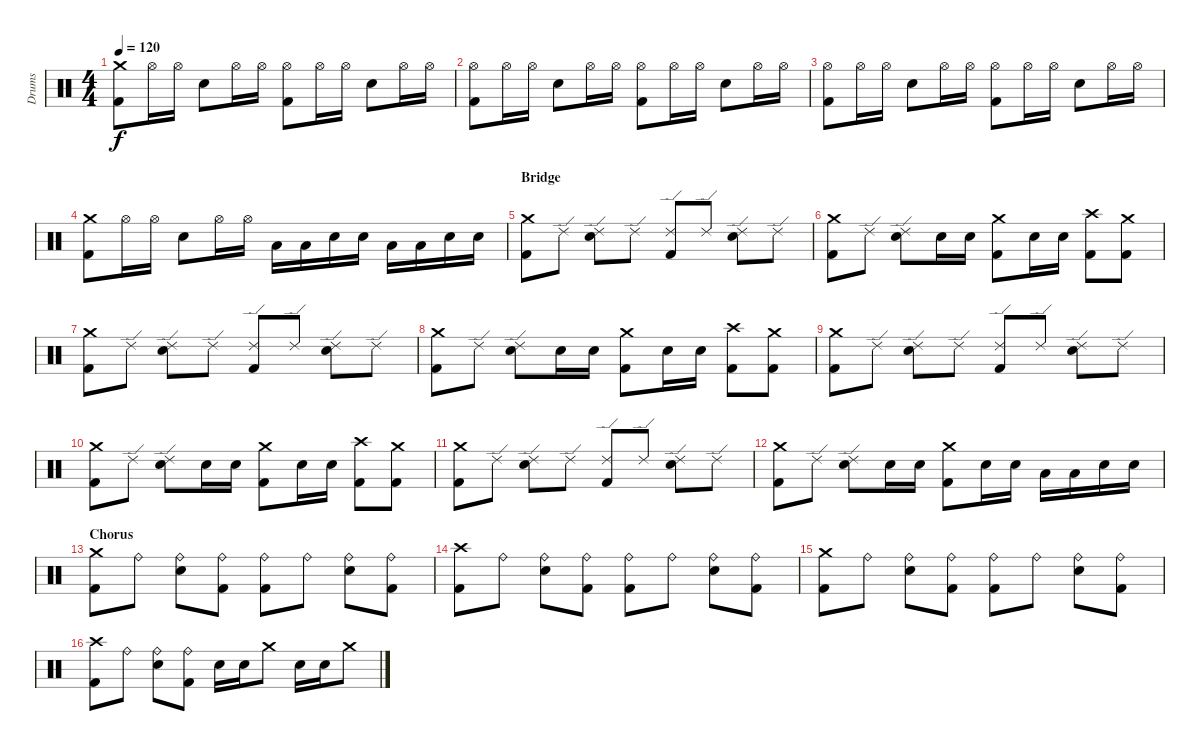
\track ("Drums" "Drums") {instrument percussion}
\staff {score}
\articulation defaults
\ts (4 4)
\tempo 120
\clef neutral
\ks c
("Kick (hit) 2" "Crash medium (hit)").8{dy f} "Hi-Hat (open)".16 "Hi-Hat (open)".16 "Snare (hit) 2".8 "Hi-Hat (open)".16 "Hi-Hat (open)".16 ("Kick (hit) 2" "Hi-Hat (open)").8 "Hi-Hat (open)".16 "Hi-Hat (open)".16 "Snare (hit) 2".8 "Hi-Hat (open)".16 "Hi-Hat (open)".16 |
("Kick (hit) 2" "Hi-Hat (open)").8 "Hi-Hat (open)".16 "Hi-Hat (open)".16 "Snare (hit) 2".8 "Hi-Hat (open)".16 "Hi-Hat (open)".16 ("Kick (hit) 2" "Hi-Hat (open)").8 "Hi-Hat (open)".16 "Hi-Hat (open)".16 "Snare (hit) 2".8 "Hi-Hat (open)".16 "Hi-Hat (open)".16 |
("Kick (hit) 2" "Hi-Hat (open)").8 "Hi-Hat (open)".16 "Hi-Hat (open)".16 "Snare (hit) 2".8 "Hi-Hat (open)".16 "Hi-Hat (open)".16 ("Kick (hit) 2" "Hi-Hat (open)").8 "Hi-Hat (open)".16 "Hi-Hat (open)".16 "Snare (hit) 2".8 "Hi-Hat (open)".16 "Hi-Hat (open)".16 |
("Kick (hit) 2" "Crash medium (hit)").8 "Hi-Hat (open)".16 "Hi-Hat (open)".16 "Snare (hit) 2".8 "Hi-Hat (open)".16 "Hi-Hat (open)".16 "Low Tom (hit)".16 "Low Tom (hit)".16 "Snare (hit) 2".16 "Snare (hit) 2".16 "Low Tom (hit)".16 "Low Tom (hit)".16 "Snare (hit) 2".16 "Snare (hit) 2".16 |
\section ("" "Bridge")
("Kick (hit) 2" "Crash medium (hit)").8 "Ride (edge) 2".8 ("Snare (hit) 2" "Ride (edge) 2").8 "Ride (edge) 2".8 ("Kick (hit) 2" "Ride (edge) 2").8 "Ride (edge) 2".8 ("Snare (hit) 2" "Ride (edge) 2").8 "Ride (edge) 2".8 |
("Kick (hit) 2" "Crash medium (hit)").8 "Ride (edge) 2".8 ("Snare (hit) 2" "Ride (edge) 2").8 "Snare (hit) 2".16 "Snare (hit) 2".16 ("Kick (hit) 2" "Crash medium (hit)").8 "Snare (hit) 2".16 "Snare (hit) 2".16 ("Kick (hit) 2" "Crash high (hit)").8 ("Kick (hit) 2" "Crash medium (hit)").8 |
("Kick (hit) 2" "Crash medium (hit)").8 "Ride (edge) 2".8 ("Snare (hit) 2" "Ride (edge) 2").8 "Ride (edge) 2".8 ("Kick (hit) 2" "Ride (edge) 2").8 "Ride (edge) 2".8 ("Snare (hit) 2" "Ride (edge) 2").8 "Ride (edge) 2".8 |
("Kick (hit) 2" "Crash medium (hit)").8 "Ride (edge) 2".8 ("Snare (hit) 2" "Ride (edge) 2").8 "Snare (hit) 2".16 "Snare (hit) 2".16 ("Kick (hit) 2" "Crash medium (hit)").8 "Snare (hit) 2".16 "Snare (hit) 2".16 ("Kick (hit) 2" "Crash high (hit)").8 ("Kick (hit) 2" "Crash medium (hit)").8 |
("Kick (hit) 2" "Crash medium (hit)").8 "Ride (edge) 2".8 ("Snare (hit) 2" "Ride (edge) 2").8 "Ride (edge) 2".8 ("Kick (hit) 2" "Ride (edge) 2").8 "Ride (edge) 2".8 ("Snare (hit) 2" "Ride (edge) 2").8 "Ride (edge) 2".8 |
("Kick (hit) 2" "Crash medium (hit)").8 "Ride (edge) 2".8 ("Snare (hit) 2" "Ride (edge) 2").8 "Snare (hit) 2".16 "Snare (hit) 2".16 ("Kick (hit) 2" "Crash medium (hit)").8 "Snare (hit) 2".16 "Snare (hit) 2".16 ("Kick (hit) 2" "Crash high (hit)").8 ("Kick (hit) 2" "Crash medium (hit)").8 |
("Kick (hit) 2" "Crash medium (hit)").8 "Ride (edge) 2".8 ("Snare (hit) 2" "Ride (edge) 2").8 "Ride (edge) 2".8 ("Kick (hit) 2" "Ride (edge) 2").8 "Ride (edge) 2".8 ("Snare (hit) 2" "Ride (edge) 2").8 "Ride (edge) 2".8 |
("Kick (hit) 2" "Crash medium (hit)").8 "Ride (edge) 2".8 ("Snare (hit) 2" "Ride (edge) 2").8 "Snare (hit) 2".16 "Snare (hit) 2".16 ("Kick (hit) 2" "Crash medium (hit)").8 "Snare (hit) 2".16 "Snare (hit) 2".16 "Low Tom (hit)".16 "Low Tom (hit)".16 "Snare (hit) 2".16 "Snare (hit) 2".16 |
\section ("" "Chorus")
("Kick (hit) 2" "Crash medium (hit)").8 "Ride (bell)".8 ("Snare (hit) 2" "Ride (bell)").8 ("Kick (hit) 2" "Ride (bell)").8 ("Kick (hit) 2" "Ride (bell)").8 "Ride (bell)".8 ("Snare (hit) 2" "Ride (bell)").8 ("Kick (hit) 2" "Ride (bell)").8 |
("Kick (hit) 2" "Crash high (hit)").8 "Ride (bell)".8 ("Snare (hit) 2" "Ride (bell)").8 ("Kick (hit) 2" "Ride (bell)").8 ("Kick (hit) 2" "Ride (bell)").8 "Ride (bell)".8 ("Snare (hit) 2" "Ride (bell)").8 ("Kick (hit) 2" "Ride (bell)").8 |
("Kick (hit) 2" "Crash medium (hit)").8 "Ride (bell)".8 ("Snare (hit) 2" "Ride (bell)").8 ("Kick (hit) 2" "Ride (bell)").8 ("Kick (hit) 2" "Ride (bell)").8 "Ride (bell)".8 ("Snare (hit) 2" "Ride (bell)").8 ("Kick (hit) 2" "Ride (bell)").8 |
("Kick (hit) 2" "Crash high (hit)").8 "Ride (bell)".8 ("Snare (hit) 2" "Ride (bell)").8 ("Kick (hit) 2" "Ride (bell)").8 "Snare (hit) 2".16 "Snare (hit) 2".16 "Crash medium (hit)".8 "Snare (hit) 2".16 "Snare (hit) 2".16 "Crash medium (hit)".8
